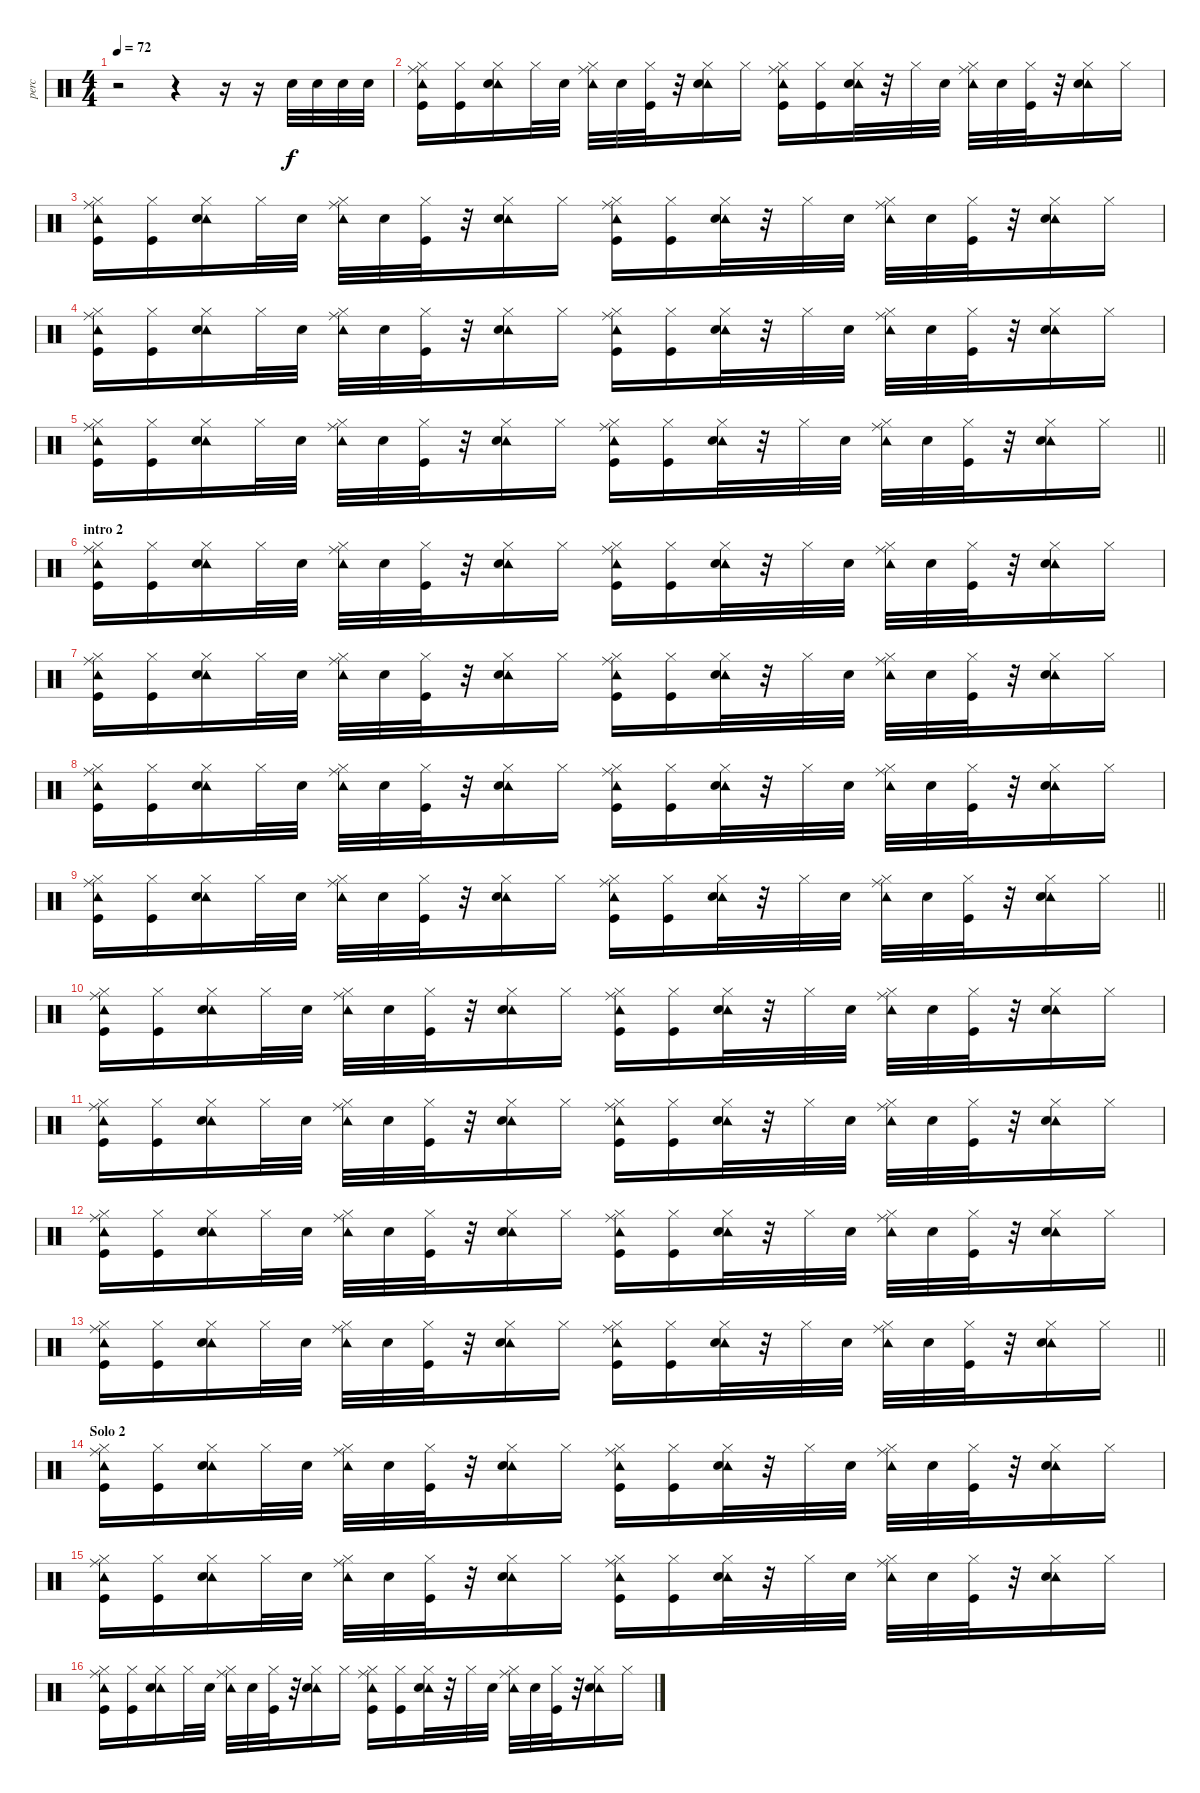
\track ("perc" "perc") {instrument percussion}
\staff {score}
\articulation defaults
\ts (4 4)
\tempo 72
\clef neutral
\ks c
r.2{dy f} r.4 r.16 r.16 "Snare (hit) 2".32 "Snare (hit) 2".32 "Snare (hit) 2".32 "Snare (hit) 2".32 |
("Tambourine (hit)" "Hi-Hat (closed)" "Ride (middle)" "Kick (hit)").16 ("Hi-Hat (closed)" "Kick (hit)").16 ("Tambourine (hit)" "Hi-Hat (closed)" "Snare (hit) 2").16 "Hi-Hat (closed)".32 "Snare (hit) 2".32 ("Tambourine (hit)" "Hi-Hat (closed)" "Ride (middle)").32 "Snare (hit) 2".32 ("Hi-Hat (closed)" "Kick (hit)").32 r.32 ("Tambourine (hit)" "Hi-Hat (closed)" "Snare (hit) 2").16 "Hi-Hat (closed)".16 ("Tambourine (hit)" "Hi-Hat (closed)" "Ride (middle)" "Kick (hit)").16 ("Hi-Hat (closed)" "Kick (hit)").16 ("Tambourine (hit)" "Hi-Hat (closed)" "Snare (hit) 2").32 r.32 "Hi-Hat (closed)".32 "Snare (hit) 2".32 ("Tambourine (hit)" "Hi-Hat (closed)" "Ride (middle)").32 "Snare (hit) 2".32 ("Hi-Hat (closed)" "Kick (hit)").32 r.32 ("Tambourine (hit)" "Hi-Hat (closed)" "Snare (hit) 2").16 "Hi-Hat (closed)".16 |
("Tambourine (hit)" "Hi-Hat (closed)" "Ride (middle)" "Kick (hit)").16 ("Hi-Hat (closed)" "Kick (hit)").16 ("Tambourine (hit)" "Hi-Hat (closed)" "Snare (hit) 2").16 "Hi-Hat (closed)".32 "Snare (hit) 2".32 ("Tambourine (hit)" "Hi-Hat (closed)" "Ride (middle)").32 "Snare (hit) 2".32 ("Hi-Hat (closed)" "Kick (hit)").32 r.32 ("Tambourine (hit)" "Hi-Hat (closed)" "Snare (hit) 2").16 "Hi-Hat (closed)".16 ("Tambourine (hit)" "Hi-Hat (closed)" "Ride (middle)" "Kick (hit)").16 ("Hi-Hat (closed)" "Kick (hit)").16 ("Tambourine (hit)" "Hi-Hat (closed)" "Snare (hit) 2").32 r.32 "Hi-Hat (closed)".32 "Snare (hit) 2".32 ("Tambourine (hit)" "Hi-Hat (closed)" "Ride (middle)").32 "Snare (hit) 2".32 ("Hi-Hat (closed)" "Kick (hit)").32 r.32 ("Tambourine (hit)" "Hi-Hat (closed)" "Snare (hit) 2").16 "Hi-Hat (closed)".16 |
("Tambourine (hit)" "Hi-Hat (closed)" "Ride (middle)" "Kick (hit)").16 ("Hi-Hat (closed)" "Kick (hit)").16 ("Tambourine (hit)" "Hi-Hat (closed)" "Snare (hit) 2").16 "Hi-Hat (closed)".32 "Snare (hit) 2".32 ("Tambourine (hit)" "Hi-Hat (closed)" "Ride (middle)").32 "Snare (hit) 2".32 ("Hi-Hat (closed)" "Kick (hit)").32 r.32 ("Tambourine (hit)" "Hi-Hat (closed)" "Snare (hit) 2").16 "Hi-Hat (closed)".16 ("Tambourine (hit)" "Hi-Hat (closed)" "Ride (middle)" "Kick (hit)").16 ("Hi-Hat (closed)" "Kick (hit)").16 ("Tambourine (hit)" "Hi-Hat (closed)" "Snare (hit) 2").32 r.32 "Hi-Hat (closed)".32 "Snare (hit) 2".32 ("Tambourine (hit)" "Hi-Hat (closed)" "Ride (middle)").32 "Snare (hit) 2".32 ("Hi-Hat (closed)" "Kick (hit)").32 r.32 ("Tambourine (hit)" "Hi-Hat (closed)" "Snare (hit) 2").16 "Hi-Hat (closed)".16 |
\barLineRight lightlight
("Tambourine (hit)" "Hi-Hat (closed)" "Ride (middle)" "Kick (hit)").16 ("Hi-Hat (closed)" "Kick (hit)").16 ("Tambourine (hit)" "Hi-Hat (closed)" "Snare (hit) 2").16 "Hi-Hat (closed)".32 "Snare (hit) 2".32 ("Tambourine (hit)" "Hi-Hat (closed)" "Ride (middle)").32 "Snare (hit) 2".32 ("Hi-Hat (closed)" "Kick (hit)").32 r.32 ("Tambourine (hit)" "Hi-Hat (closed)" "Snare (hit) 2").16 "Hi-Hat (closed)".16 ("Tambourine (hit)" "Hi-Hat (closed)" "Ride (middle)" "Kick (hit)").16 ("Hi-Hat (closed)" "Kick (hit)").16 ("Tambourine (hit)" "Hi-Hat (closed)" "Snare (hit) 2").32 r.32 "Hi-Hat (closed)".32 "Snare (hit) 2".32 ("Tambourine (hit)" "Hi-Hat (closed)" "Ride (middle)").32 "Snare (hit) 2".32 ("Hi-Hat (closed)" "Kick (hit)").32 r.32 ("Tambourine (hit)" "Hi-Hat (closed)" "Snare (hit) 2").16 "Hi-Hat (closed)".16 |
\section ("" "intro 2")
("Tambourine (hit)" "Hi-Hat (closed)" "Ride (middle)" "Kick (hit)").16 ("Hi-Hat (closed)" "Kick (hit)").16 ("Tambourine (hit)" "Hi-Hat (closed)" "Snare (hit) 2").16 "Hi-Hat (closed)".32 "Snare (hit) 2".32 ("Tambourine (hit)" "Hi-Hat (closed)" "Ride (middle)").32 "Snare (hit) 2".32 ("Hi-Hat (closed)" "Kick (hit)").32 r.32 ("Tambourine (hit)" "Hi-Hat (closed)" "Snare (hit) 2").16 "Hi-Hat (closed)".16 ("Tambourine (hit)" "Hi-Hat (closed)" "Ride (middle)" "Kick (hit)").16 ("Hi-Hat (closed)" "Kick (hit)").16 ("Tambourine (hit)" "Hi-Hat (closed)" "Snare (hit) 2").32 r.32 "Hi-Hat (closed)".32 "Snare (hit) 2".32 ("Tambourine (hit)" "Hi-Hat (closed)" "Ride (middle)").32 "Snare (hit) 2".32 ("Hi-Hat (closed)" "Kick (hit)").32 r.32 ("Tambourine (hit)" "Hi-Hat (closed)" "Snare (hit) 2").16 "Hi-Hat (closed)".16 |
("Tambourine (hit)" "Hi-Hat (closed)" "Ride (middle)" "Kick (hit)").16 ("Hi-Hat (closed)" "Kick (hit)").16 ("Tambourine (hit)" "Hi-Hat (closed)" "Snare (hit) 2").16 "Hi-Hat (closed)".32 "Snare (hit) 2".32 ("Tambourine (hit)" "Hi-Hat (closed)" "Ride (middle)").32 "Snare (hit) 2".32 ("Hi-Hat (closed)" "Kick (hit)").32 r.32 ("Tambourine (hit)" "Hi-Hat (closed)" "Snare (hit) 2").16 "Hi-Hat (closed)".16 ("Tambourine (hit)" "Hi-Hat (closed)" "Ride (middle)" "Kick (hit)").16 ("Hi-Hat (closed)" "Kick (hit)").16 ("Tambourine (hit)" "Hi-Hat (closed)" "Snare (hit) 2").32 r.32 "Hi-Hat (closed)".32 "Snare (hit) 2".32 ("Tambourine (hit)" "Hi-Hat (closed)" "Ride (middle)").32 "Snare (hit) 2".32 ("Hi-Hat (closed)" "Kick (hit)").32 r.32 ("Tambourine (hit)" "Hi-Hat (closed)" "Snare (hit) 2").16 "Hi-Hat (closed)".16 |
("Tambourine (hit)" "Hi-Hat (closed)" "Ride (middle)" "Kick (hit)").16 ("Hi-Hat (closed)" "Kick (hit)").16 ("Tambourine (hit)" "Hi-Hat (closed)" "Snare (hit) 2").16 "Hi-Hat (closed)".32 "Snare (hit) 2".32 ("Tambourine (hit)" "Hi-Hat (closed)" "Ride (middle)").32 "Snare (hit) 2".32 ("Hi-Hat (closed)" "Kick (hit)").32 r.32 ("Tambourine (hit)" "Hi-Hat (closed)" "Snare (hit) 2").16 "Hi-Hat (closed)".16 ("Tambourine (hit)" "Hi-Hat (closed)" "Ride (middle)" "Kick (hit)").16 ("Hi-Hat (closed)" "Kick (hit)").16 ("Tambourine (hit)" "Hi-Hat (closed)" "Snare (hit) 2").32 r.32 "Hi-Hat (closed)".32 "Snare (hit) 2".32 ("Tambourine (hit)" "Hi-Hat (closed)" "Ride (middle)").32 "Snare (hit) 2".32 ("Hi-Hat (closed)" "Kick (hit)").32 r.32 ("Tambourine (hit)" "Hi-Hat (closed)" "Snare (hit) 2").16 "Hi-Hat (closed)".16 |
\barLineRight lightlight
("Tambourine (hit)" "Hi-Hat (closed)" "Ride (middle)" "Kick (hit)").16 ("Hi-Hat (closed)" "Kick (hit)").16 ("Tambourine (hit)" "Hi-Hat (closed)" "Snare (hit) 2").16 "Hi-Hat (closed)".32 "Snare (hit) 2".32 ("Tambourine (hit)" "Hi-Hat (closed)" "Ride (middle)").32 "Snare (hit) 2".32 ("Hi-Hat (closed)" "Kick (hit)").32 r.32 ("Tambourine (hit)" "Hi-Hat (closed)" "Snare (hit) 2").16 "Hi-Hat (closed)".16 ("Tambourine (hit)" "Hi-Hat (closed)" "Ride (middle)" "Kick (hit)").16 ("Hi-Hat (closed)" "Kick (hit)").16 ("Tambourine (hit)" "Hi-Hat (closed)" "Snare (hit) 2").32 r.32 "Hi-Hat (closed)".32 "Snare (hit) 2".32 ("Tambourine (hit)" "Hi-Hat (closed)" "Ride (middle)").32 "Snare (hit) 2".32 ("Hi-Hat (closed)" "Kick (hit)").32 r.32 ("Tambourine (hit)" "Hi-Hat (closed)" "Snare (hit) 2").16 "Hi-Hat (closed)".16 |
\section ("" "")
("Tambourine (hit)" "Hi-Hat (closed)" "Ride (middle)" "Kick (hit)").16 ("Hi-Hat (closed)" "Kick (hit)").16 ("Tambourine (hit)" "Hi-Hat (closed)" "Snare (hit) 2").16 "Hi-Hat (closed)".32 "Snare (hit) 2".32 ("Tambourine (hit)" "Hi-Hat (closed)" "Ride (middle)").32 "Snare (hit) 2".32 ("Hi-Hat (closed)" "Kick (hit)").32 r.32 ("Tambourine (hit)" "Hi-Hat (closed)" "Snare (hit) 2").16 "Hi-Hat (closed)".16 ("Tambourine (hit)" "Hi-Hat (closed)" "Ride (middle)" "Kick (hit)").16 ("Hi-Hat (closed)" "Kick (hit)").16 ("Tambourine (hit)" "Hi-Hat (closed)" "Snare (hit) 2").32 r.32 "Hi-Hat (closed)".32 "Snare (hit) 2".32 ("Tambourine (hit)" "Hi-Hat (closed)" "Ride (middle)").32 "Snare (hit) 2".32 ("Hi-Hat (closed)" "Kick (hit)").32 r.32 ("Tambourine (hit)" "Hi-Hat (closed)" "Snare (hit) 2").16 "Hi-Hat (closed)".16 |
("Tambourine (hit)" "Hi-Hat (closed)" "Ride (middle)" "Kick (hit)").16 ("Hi-Hat (closed)" "Kick (hit)").16 ("Tambourine (hit)" "Hi-Hat (closed)" "Snare (hit) 2").16 "Hi-Hat (closed)".32 "Snare (hit) 2".32 ("Tambourine (hit)" "Hi-Hat (closed)" "Ride (middle)").32 "Snare (hit) 2".32 ("Hi-Hat (closed)" "Kick (hit)").32 r.32 ("Tambourine (hit)" "Hi-Hat (closed)" "Snare (hit) 2").16 "Hi-Hat (closed)".16 ("Tambourine (hit)" "Hi-Hat (closed)" "Ride (middle)" "Kick (hit)").16 ("Hi-Hat (closed)" "Kick (hit)").16 ("Tambourine (hit)" "Hi-Hat (closed)" "Snare (hit) 2").32 r.32 "Hi-Hat (closed)".32 "Snare (hit) 2".32 ("Tambourine (hit)" "Hi-Hat (closed)" "Ride (middle)").32 "Snare (hit) 2".32 ("Hi-Hat (closed)" "Kick (hit)").32 r.32 ("Tambourine (hit)" "Hi-Hat (closed)" "Snare (hit) 2").16 "Hi-Hat (closed)".16 |
("Tambourine (hit)" "Hi-Hat (closed)" "Ride (middle)" "Kick (hit)").16 ("Hi-Hat (closed)" "Kick (hit)").16 ("Tambourine (hit)" "Hi-Hat (closed)" "Snare (hit) 2").16 "Hi-Hat (closed)".32 "Snare (hit) 2".32 ("Tambourine (hit)" "Hi-Hat (closed)" "Ride (middle)").32 "Snare (hit) 2".32 ("Hi-Hat (closed)" "Kick (hit)").32 r.32 ("Tambourine (hit)" "Hi-Hat (closed)" "Snare (hit) 2").16 "Hi-Hat (closed)".16 ("Tambourine (hit)" "Hi-Hat (closed)" "Ride (middle)" "Kick (hit)").16 ("Hi-Hat (closed)" "Kick (hit)").16 ("Tambourine (hit)" "Hi-Hat (closed)" "Snare (hit) 2").32 r.32 "Hi-Hat (closed)".32 "Snare (hit) 2".32 ("Tambourine (hit)" "Hi-Hat (closed)" "Ride (middle)").32 "Snare (hit) 2".32 ("Hi-Hat (closed)" "Kick (hit)").32 r.32 ("Tambourine (hit)" "Hi-Hat (closed)" "Snare (hit) 2").16 "Hi-Hat (closed)".16 |
\barLineRight lightlight
("Tambourine (hit)" "Hi-Hat (closed)" "Ride (middle)" "Kick (hit)").16 ("Hi-Hat (closed)" "Kick (hit)").16 ("Tambourine (hit)" "Hi-Hat (closed)" "Snare (hit) 2").16 "Hi-Hat (closed)".32 "Snare (hit) 2".32 ("Tambourine (hit)" "Hi-Hat (closed)" "Ride (middle)").32 "Snare (hit) 2".32 ("Hi-Hat (closed)" "Kick (hit)").32 r.32 ("Tambourine (hit)" "Hi-Hat (closed)" "Snare (hit) 2").16 "Hi-Hat (closed)".16 ("Tambourine (hit)" "Hi-Hat (closed)" "Ride (middle)" "Kick (hit)").16 ("Hi-Hat (closed)" "Kick (hit)").16 ("Tambourine (hit)" "Hi-Hat (closed)" "Snare (hit) 2").32 r.32 "Hi-Hat (closed)".32 "Snare (hit) 2".32 ("Tambourine (hit)" "Hi-Hat (closed)" "Ride (middle)").32 "Snare (hit) 2".32 ("Hi-Hat (closed)" "Kick (hit)").32 r.32 ("Tambourine (hit)" "Hi-Hat (closed)" "Snare (hit) 2").16 "Hi-Hat (closed)".16 |
\section ("" "Solo 2")
("Tambourine (hit)" "Hi-Hat (closed)" "Ride (middle)" "Kick (hit)").16 ("Hi-Hat (closed)" "Kick (hit)").16 ("Tambourine (hit)" "Hi-Hat (closed)" "Snare (hit) 2").16 "Hi-Hat (closed)".32 "Snare (hit) 2".32 ("Tambourine (hit)" "Hi-Hat (closed)" "Ride (middle)").32 "Snare (hit) 2".32 ("Hi-Hat (closed)" "Kick (hit)").32 r.32 ("Tambourine (hit)" "Hi-Hat (closed)" "Snare (hit) 2").16 "Hi-Hat (closed)".16 ("Tambourine (hit)" "Hi-Hat (closed)" "Ride (middle)" "Kick (hit)").16 ("Hi-Hat (closed)" "Kick (hit)").16 ("Tambourine (hit)" "Hi-Hat (closed)" "Snare (hit) 2").32 r.32 "Hi-Hat (closed)".32 "Snare (hit) 2".32 ("Tambourine (hit)" "Hi-Hat (closed)" "Ride (middle)").32 "Snare (hit) 2".32 ("Hi-Hat (closed)" "Kick (hit)").32 r.32 ("Tambourine (hit)" "Hi-Hat (closed)" "Snare (hit) 2").16 "Hi-Hat (closed)".16 |
("Tambourine (hit)" "Hi-Hat (closed)" "Ride (middle)" "Kick (hit)").16 ("Hi-Hat (closed)" "Kick (hit)").16 ("Tambourine (hit)" "Hi-Hat (closed)" "Snare (hit) 2").16 "Hi-Hat (closed)".32 "Snare (hit) 2".32 ("Tambourine (hit)" "Hi-Hat (closed)" "Ride (middle)").32 "Snare (hit) 2".32 ("Hi-Hat (closed)" "Kick (hit)").32 r.32 ("Tambourine (hit)" "Hi-Hat (closed)" "Snare (hit) 2").16 "Hi-Hat (closed)".16 ("Tambourine (hit)" "Hi-Hat (closed)" "Ride (middle)" "Kick (hit)").16 ("Hi-Hat (closed)" "Kick (hit)").16 ("Tambourine (hit)" "Hi-Hat (closed)" "Snare (hit) 2").32 r.32 "Hi-Hat (closed)".32 "Snare (hit) 2".32 ("Tambourine (hit)" "Hi-Hat (closed)" "Ride (middle)").32 "Snare (hit) 2".32 ("Hi-Hat (closed)" "Kick (hit)").32 r.32 ("Tambourine (hit)" "Hi-Hat (closed)" "Snare (hit) 2").16 "Hi-Hat (closed)".16 |
("Tambourine (hit)" "Hi-Hat (closed)" "Ride (middle)" "Kick (hit)").16 ("Hi-Hat (closed)" "Kick (hit)").16 ("Tambourine (hit)" "Hi-Hat (closed)" "Snare (hit) 2").16 "Hi-Hat (closed)".32 "Snare (hit) 2".32 ("Tambourine (hit)" "Hi-Hat (closed)" "Ride (middle)").32 "Snare (hit) 2".32 ("Hi-Hat (closed)" "Kick (hit)").32 r.32 ("Tambourine (hit)" "Hi-Hat (closed)" "Snare (hit) 2").16 "Hi-Hat (closed)".16 ("Tambourine (hit)" "Hi-Hat (closed)" "Ride (middle)" "Kick (hit)").16 ("Hi-Hat (closed)" "Kick (hit)").16 ("Tambourine (hit)" "Hi-Hat (closed)" "Snare (hit) 2").32 r.32 "Hi-Hat (closed)".32 "Snare (hit) 2".32 ("Tambourine (hit)" "Hi-Hat (closed)" "Ride (middle)").32 "Snare (hit) 2".32 ("Hi-Hat (closed)" "Kick (hit)").32 r.32 ("Tambourine (hit)" "Hi-Hat (closed)" "Snare (hit) 2").16 "Hi-Hat (closed)".16
